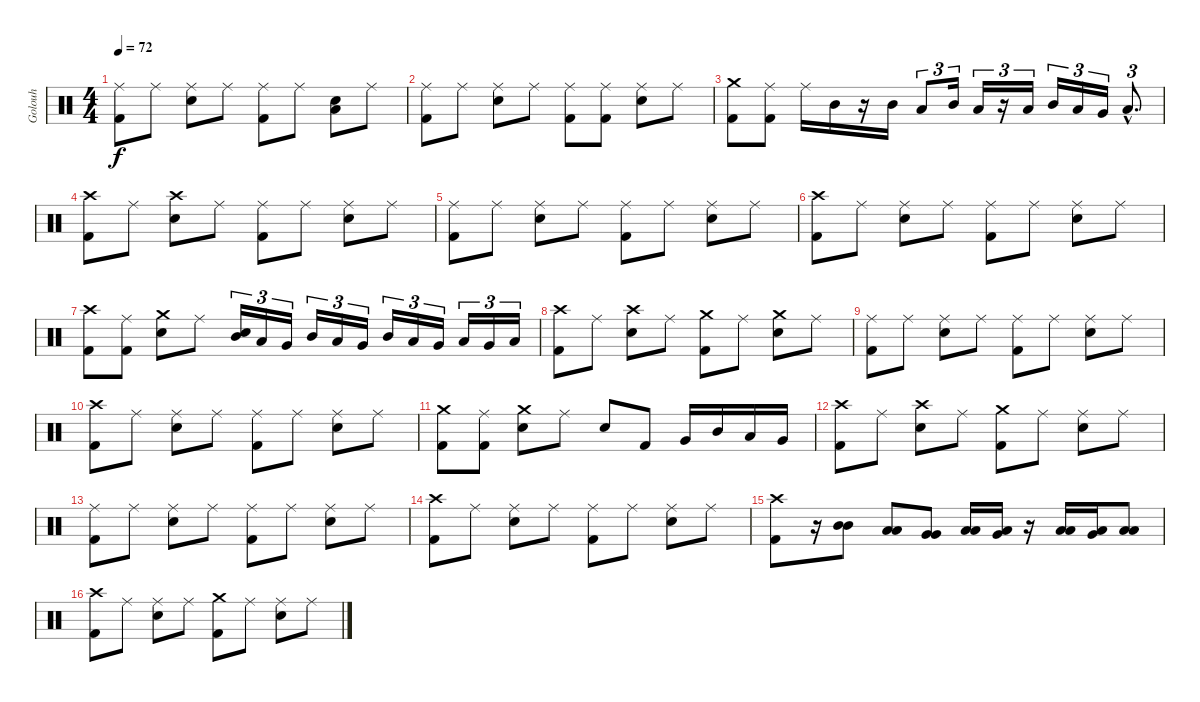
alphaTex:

\track ("Golouh" "Golouh") {instrument percussion}
\staff {score}
\articulation defaults
\ts (4 4)
\tempo 72
\clef neutral
\ks c
("Ride (middle)" "Kick (hit) 2").8{dy f} "Ride (middle)".8 ("Ride (middle)" "Snare (hit) 2").8 "Ride (middle)".8 ("Ride (middle)" "Kick (hit) 2").8 "Ride (middle)".8 ("Low Floor Tom (hit)" "Snare (hit) 2").8 "Ride (middle)".8 |
("Ride (middle)" "Kick (hit) 2").8 "Ride (middle)".8 ("Ride (middle)" "Snare (hit) 2").8 "Ride (middle)".8 ("Ride (middle)" "Kick (hit) 2").8 ("Ride (middle)" "Kick (hit) 2").8 ("Ride (middle)" "Snare (hit) 2").8 "Ride (middle)".8 |
("Crash medium (hit)" "Kick (hit) 2").8 ("Ride (middle)" "Kick (hit) 2").8 "Ride (middle)".16 "Mid Tom (hit)".16 r.16 "Mid Tom (hit)".16 "Low Tom (hit)".8{tu (3 2)} "Mid Tom (hit)".16{tu (3 2)} "Low Tom (hit)".16{tu (3 2)} r.16{tu (3 2)} "Low Tom (hit)".16{tu (3 2)} "Mid Tom (hit)".16{tu (3 2)} "Low Tom (hit)".16{tu (3 2)} "Very Low Tom (hit)".16{tu (3 2)} "Low Floor Tom (hit)"{hac}.8{d tu (3 2)} |
("Crash high (hit)" "Kick (hit) 2").8 "Ride (middle)".8 ("Crash high (hit)" "Snare (hit) 2").8 "Ride (middle)".8 ("Ride (middle)" "Kick (hit) 2").8 "Ride (middle)".8 ("Ride (middle)" "Snare (hit) 2").8 "Ride (middle)".8 |
("Ride (middle)" "Kick (hit) 2").8 "Ride (middle)".8 ("Ride (middle)" "Snare (hit) 2").8 "Ride (middle)".8 ("Ride (middle)" "Kick (hit) 2").8 "Ride (middle)".8 ("Ride (middle)" "Snare (hit) 2").8 "Ride (middle)".8 |
("Crash high (hit)" "Kick (hit) 2").8 "Ride (middle)".8 ("Ride (middle)" "Snare (hit) 2").8 "Ride (middle)".8 ("Ride (middle)" "Kick (hit) 2").8 "Ride (middle)".8 ("Ride (middle)" "Snare (hit) 2").8 "Ride (middle)".8 |
("Crash high (hit)" "Kick (hit) 2").8 ("Ride (middle)" "Kick (hit) 2").8 ("Crash medium (hit)" "Snare (hit) 2").8 "Ride (middle)".8 ("Mid Tom (hit)" "Snare (hit) 2").16{tu (3 2)} "Low Tom (hit)".16{tu (3 2)} "Very Low Tom (hit)".16{tu (3 2)} "Mid Tom (hit)".16{tu (3 2)} "Low Tom (hit)".16{tu (3 2)} "Very Low Tom (hit)".16{tu (3 2)} "Mid Tom (hit)".16{tu (3 2)} "Low Tom (hit)".16{tu (3 2)} "Very Low Tom (hit)".16{tu (3 2)} "Low Tom (hit)".16{tu (3 2)} "Very Low Tom (hit)".16{tu (3 2)} "Low Floor Tom (hit)".16{tu (3 2)} |
("Crash high (hit)" "Kick (hit) 2").8 "Ride (middle)".8 ("Crash high (hit)" "Snare (hit) 2").8 "Ride (middle)".8 ("Crash medium (hit)" "Kick (hit) 2").8 "Ride (middle)".8 ("Crash medium (hit)" "Snare (hit) 2").8 "Ride (middle)".8 |
("Ride (middle)" "Kick (hit) 2").8 "Ride (middle)".8 ("Ride (middle)" "Snare (hit) 2").8 "Ride (middle)".8 ("Ride (middle)" "Kick (hit) 2").8 "Ride (middle)".8 ("Ride (middle)" "Snare (hit) 2").8 "Ride (middle)".8 |
("Crash high (hit)" "Kick (hit) 2").8 "Ride (middle)".8 ("Ride (middle)" "Snare (hit) 2").8 "Ride (middle)".8 ("Ride (middle)" "Kick (hit) 2").8 "Ride (middle)".8 ("Ride (middle)" "Snare (hit) 2").8 "Ride (middle)".8 |
("Crash medium (hit)" "Kick (hit) 2").8 ("Ride (middle)" "Kick (hit) 2").8 ("Crash medium (hit)" "Snare (hit) 2").8 "Ride (middle)".8 "Snare (hit) 2".8 "Kick (hit) 2".8 "Very Low Tom (hit)".16 "Mid Tom (hit)".16 "Low Tom (hit)".16 "Very Low Tom (hit)".16 |
("Crash high (hit)" "Kick (hit) 2").8 "Ride (middle)".8 ("Crash high (hit)" "Snare (hit) 2").8 "Ride (middle)".8 ("Crash medium (hit)" "Kick (hit) 2").8 "Ride (middle)".8 ("Ride (middle)" "Snare (hit) 2").8 "Ride (middle)".8 |
("Ride (middle)" "Kick (hit) 2").8 "Ride (middle)".8 ("Ride (middle)" "Snare (hit) 2").8 "Ride (middle)".8 ("Ride (middle)" "Kick (hit) 2").8 "Ride (middle)".8 ("Ride (middle)" "Snare (hit) 2").8 "Ride (middle)".8 |
("Crash high (hit)" "Kick (hit) 2").8 "Ride (middle)".8 ("Ride (middle)" "Snare (hit) 2").8 "Ride (middle)".8 ("Ride (middle)" "Kick (hit) 2").8 "Ride (middle)".8 ("Ride (middle)" "Snare (hit) 2").8 "Ride (middle)".8 |
("Crash high (hit)" "Kick (hit) 2").8 r.16 ("Mid Tom (hit)" "Mid Tom (hit)").8 ("Low Tom (hit)" "Low Tom (hit)").8 ("Very Low Tom (hit)" "Very Low Tom (hit)").8 ("Low Tom (hit)" "Low Floor Tom (hit)").16 ("Very Low Tom (hit)" "Low Floor Tom (hit)").16 r.16 ("Low Tom (hit)" "Low Floor Tom (hit)").16 ("Very Low Tom (hit)" "Low Tom (hit)").16 ("Low Floor Tom (hit)" "Low Floor Tom (hit)").8 |
("Crash high (hit)" "Kick (hit) 2").8 "Ride (middle)".8 ("Ride (middle)" "Snare (hit) 2").8 "Ride (middle)".8 ("Crash medium (hit)" "Kick (hit) 2").8 "Ride (middle)".8 ("Ride (middle)" "Snare (hit) 2").8 "Ride (middle)".8
